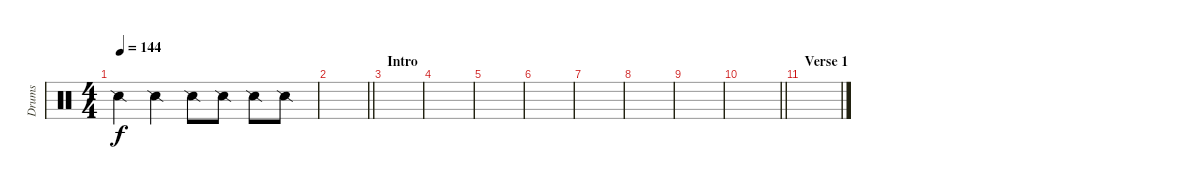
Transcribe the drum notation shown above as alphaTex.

\track ("Drums" "Drums") {instrument percussion}
\staff {score}
\articulation defaults
\ts (4 4)
\tempo 144
\clef neutral
\ks c "Snare (side stick) 2".4{dy f} "Snare (side stick) 2".4 "Snare (side stick) 2".8 "Snare (side stick) 2".8 "Snare (side stick) 2".8 "Snare (side stick) 2".8
|
\barLineRight lightlight
|
\section ("" "Intro")
|
|
|
|
|
|
|
\barLineRight lightlight
|
\section ("" "Verse 1")
